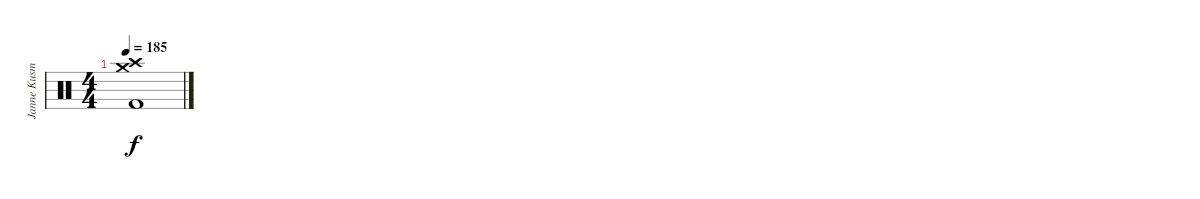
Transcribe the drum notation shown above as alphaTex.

\track ("Janne Kusmin" "Janne Kusm") {instrument percussion}
\staff {score}
\articulation defaults
\ts (4 4)
\tempo 185
\clef neutral
\ks c
("Crash medium (hit)" "Crash high (hit)" "Kick (hit) 2").1{dy f}
